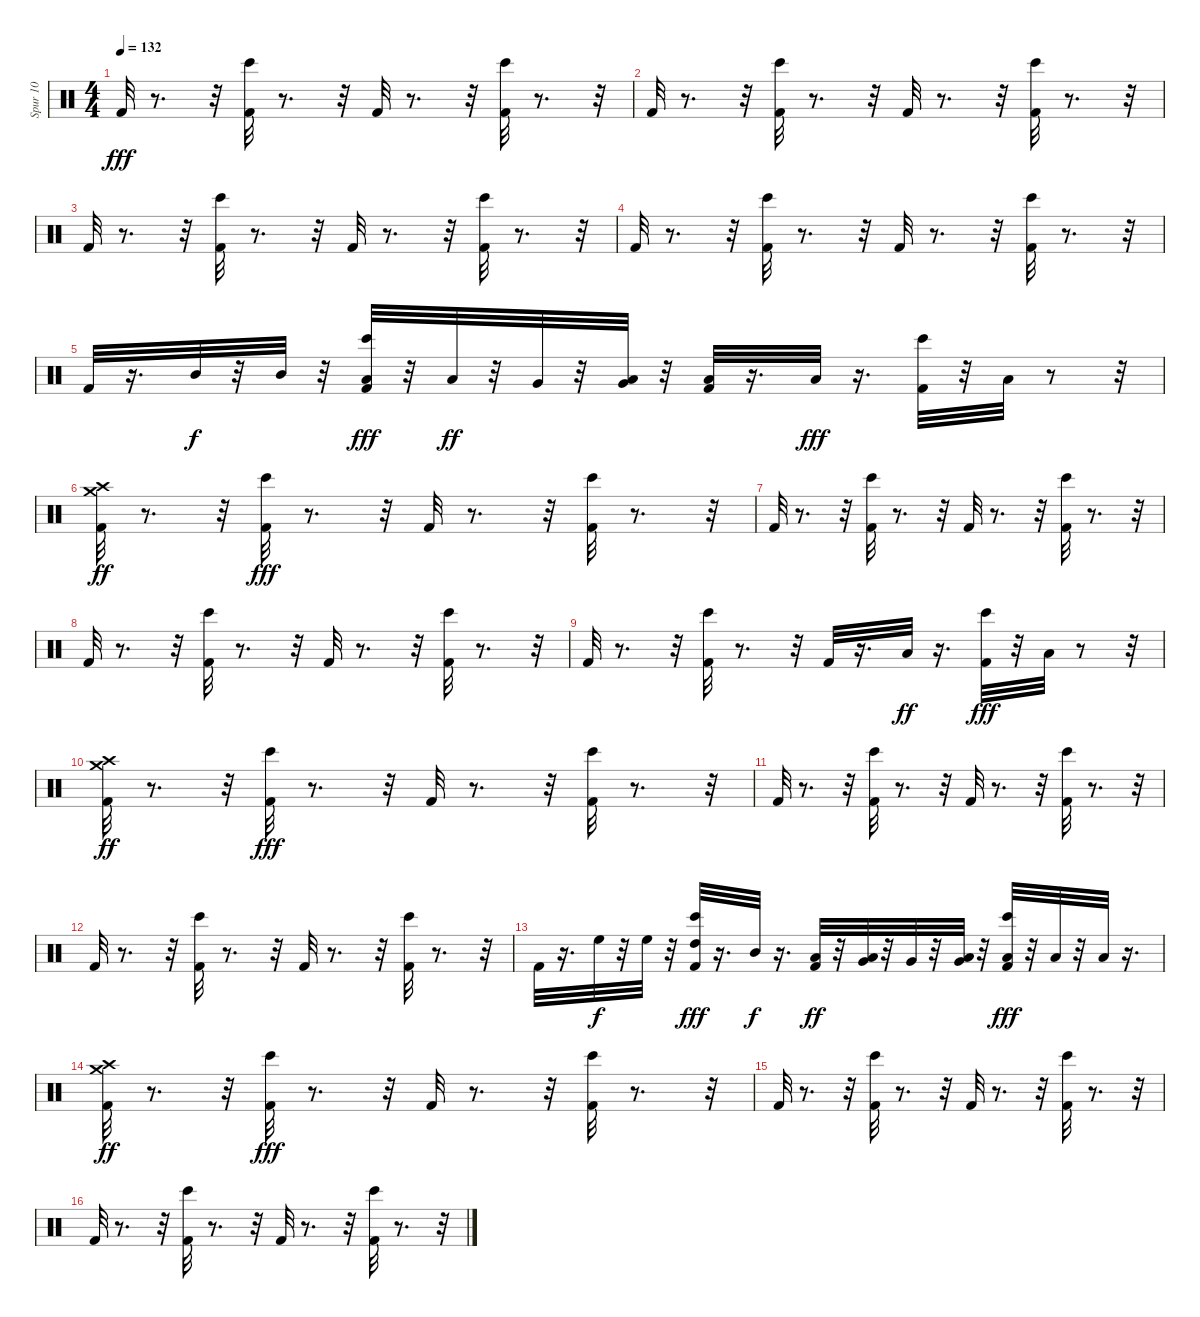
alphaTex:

\track ("Spur 10" "Spur 10") {instrument percussion}
\staff {score}
\articulation defaults
\ts (4 4)
\tempo 132
\clef neutral
\ks c "Kick (hit) 2".32{dy fff}
r.8{d} r.32 ("Bongo High (hit)" "Kick (hit) 2").32 r.8{d} r.32 "Kick (hit) 2".32 r.8{d} r.32 ("Bongo High (hit)" "Kick (hit) 2").32 r.8{d} r.32 |
"Kick (hit) 2".32 r.8{d} r.32 ("Bongo High (hit)" "Kick (hit) 2").32 r.8{d} r.32 "Kick (hit) 2".32 r.8{d} r.32 ("Bongo High (hit)" "Kick (hit) 2").32 r.8{d} r.32 |
"Kick (hit) 2".32 r.8{d} r.32 ("Bongo High (hit)" "Kick (hit) 2").32 r.8{d} r.32 "Kick (hit) 2".32 r.8{d} r.32 ("Bongo High (hit)" "Kick (hit) 2").32 r.8{d} r.32 |
"Kick (hit) 2".32 r.8{d} r.32 ("Bongo High (hit)" "Kick (hit) 2").32 r.8{d} r.32 "Kick (hit) 2".32 r.8{d} r.32 ("Bongo High (hit)" "Kick (hit) 2").32 r.8{d} r.32 |
"Kick (hit) 2".32 r.16{d} "Mid Tom (hit)".32{dy f} r.32 "Mid Tom (hit)".32 r.32 ("Bongo High (hit)" "Kick (hit) 2" "Low Tom (hit)").32{dy fff} r.32 "Low Tom (hit)".32{dy ff} r.32 "Very Low Tom (hit)".32 r.32 ("Very Low Tom (hit)" "Low Floor Tom (hit)").32 r.32 ("Kick (hit) 2" "Low Floor Tom (hit)").32 r.16{d} "Low Tom (hit)".32{dy fff} r.16{d} ("Bongo High (hit)" "Kick (hit) 2").32 r.32 "Low Floor Tom (hit)".32 r.8 r.32 |
("Crash medium (hit)" "Kick (hit) 2" "Crash high (hit)").32{dy ff} r.8{d} r.32 ("Bongo High (hit)" "Kick (hit) 2").32{dy fff} r.8{d} r.32 "Kick (hit) 2".32 r.8{d} r.32 ("Bongo High (hit)" "Kick (hit) 2").32 r.8{d} r.32 |
"Kick (hit) 2".32 r.8{d} r.32 ("Bongo High (hit)" "Kick (hit) 2").32 r.8{d} r.32 "Kick (hit) 2".32 r.8{d} r.32 ("Bongo High (hit)" "Kick (hit) 2").32 r.8{d} r.32 |
"Kick (hit) 2".32 r.8{d} r.32 ("Bongo High (hit)" "Kick (hit) 2").32 r.8{d} r.32 "Kick (hit) 2".32 r.8{d} r.32 ("Bongo High (hit)" "Kick (hit) 2").32 r.8{d} r.32 |
"Kick (hit) 2".32 r.8{d} r.32 ("Bongo High (hit)" "Kick (hit) 2").32 r.8{d} r.32 "Kick (hit) 2".32 r.16{d} "Low Tom (hit)".32{dy ff} r.16{d} ("Bongo High (hit)" "Kick (hit) 2").32{dy fff} r.32 "Low Floor Tom (hit)".32 r.8 r.32 |
("Crash medium (hit)" "Kick (hit) 2" "Crash high (hit)").32{dy ff} r.8{d} r.32 ("Bongo High (hit)" "Kick (hit) 2").32{dy fff} r.8{d} r.32 "Kick (hit) 2".32 r.8{d} r.32 ("Bongo High (hit)" "Kick (hit) 2").32 r.8{d} r.32 |
"Kick (hit) 2".32 r.8{d} r.32 ("Bongo High (hit)" "Kick (hit) 2").32 r.8{d} r.32 "Kick (hit) 2".32 r.8{d} r.32 ("Bongo High (hit)" "Kick (hit) 2").32 r.8{d} r.32 |
"Kick (hit) 2".32 r.8{d} r.32 ("Bongo High (hit)" "Kick (hit) 2").32 r.8{d} r.32 "Kick (hit) 2".32 r.8{d} r.32 ("Bongo High (hit)" "Kick (hit) 2").32 r.8{d} r.32 |
"Kick (hit) 2".32 r.16{d} "High Floor Tom (hit)".32{dy f} r.32 "High Floor Tom (hit)".32 r.32 ("Bongo High (hit)" "Kick (hit) 2" "High Tom (hit)").32{dy fff} r.16{d} "Mid Tom (hit)".32{dy f} r.16{d} ("Kick (hit) 2" "Low Tom (hit)").32{dy ff} r.32 ("Very Low Tom (hit)" "Low Tom (hit)").32 r.32 "Very Low Tom (hit)".32 r.32 ("Very Low Tom (hit)" "Low Floor Tom (hit)").32 r.32 ("Bongo High (hit)" "Kick (hit) 2" "Low Floor Tom (hit)").32{dy fff} r.32 "Low Floor Tom (hit)".32 r.32 "Low Floor Tom (hit)".32 r.16{d} |
("Crash medium (hit)" "Kick (hit) 2" "Crash high (hit)").32{dy ff} r.8{d} r.32 ("Bongo High (hit)" "Kick (hit) 2").32{dy fff} r.8{d} r.32 "Kick (hit) 2".32 r.8{d} r.32 ("Bongo High (hit)" "Kick (hit) 2").32 r.8{d} r.32 |
"Kick (hit) 2".32 r.8{d} r.32 ("Bongo High (hit)" "Kick (hit) 2").32 r.8{d} r.32 "Kick (hit) 2".32 r.8{d} r.32 ("Bongo High (hit)" "Kick (hit) 2").32 r.8{d} r.32 |
"Kick (hit) 2".32 r.8{d} r.32 ("Bongo High (hit)" "Kick (hit) 2").32 r.8{d} r.32 "Kick (hit) 2".32 r.8{d} r.32 ("Bongo High (hit)" "Kick (hit) 2").32 r.8{d} r.32
